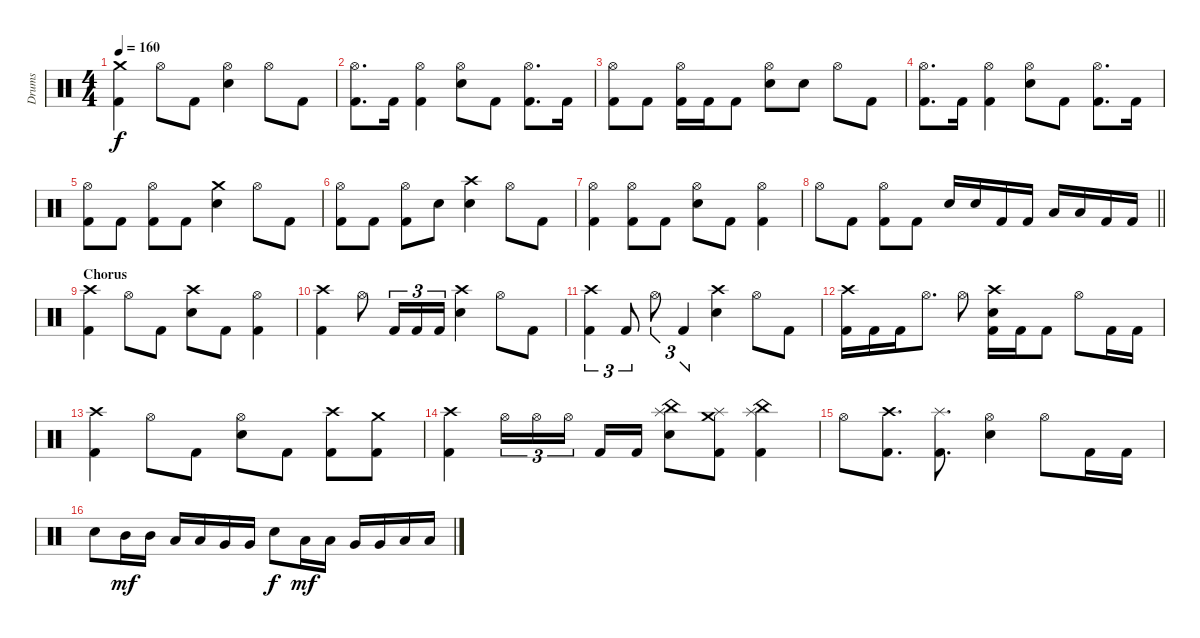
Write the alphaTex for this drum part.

\track ("Drums" "Drums") {instrument percussion}
\staff {score}
\articulation defaults
\ts (4 4)
\tempo 160
\clef neutral
\ks c
("Crash medium (hit)" "Kick (hit) 2").4{dy f} "Hi-Hat (open)".8 "Kick (hit) 2".8 ("Hi-Hat (open)" "Electric Snare (hit)").4 "Hi-Hat (open)".8 "Kick (hit) 2".8 |
("Hi-Hat (open)" "Kick (hit) 2").8{d} "Kick (hit) 2".16 ("Hi-Hat (open)" "Kick (hit) 2").4 ("Hi-Hat (open)" "Electric Snare (hit)").8 "Kick (hit) 2".8 ("Hi-Hat (open)" "Kick (hit) 2").8{d} "Kick (hit) 2".16 |
("Hi-Hat (open)" "Kick (hit) 2").8 "Kick (hit) 2".8 ("Hi-Hat (open)" "Kick (hit) 2").16 "Kick (hit) 2".16 "Kick (hit) 2".8 ("Hi-Hat (open)" "Electric Snare (hit)").8 "Electric Snare (hit)".8 "Hi-Hat (open)".8 "Kick (hit) 2".8 |
("Hi-Hat (open)" "Kick (hit) 2").8{d} "Kick (hit) 2".16 ("Hi-Hat (open)" "Kick (hit) 2").4 ("Hi-Hat (open)" "Electric Snare (hit)").8 "Kick (hit) 2".8 ("Hi-Hat (open)" "Kick (hit) 2").8{d} "Kick (hit) 2".16 |
("Hi-Hat (open)" "Kick (hit) 2").8 "Kick (hit) 2".8 ("Hi-Hat (open)" "Kick (hit) 2").8 "Kick (hit) 2".8 ("Crash medium (hit)" "Electric Snare (hit)").4 "Hi-Hat (open)".8 "Kick (hit) 2".8 |
("Hi-Hat (open)" "Kick (hit) 2").8 "Kick (hit) 2".8 ("Hi-Hat (open)" "Kick (hit) 2").8 "Electric Snare (hit)".8 ("Crash high (hit)" "Electric Snare (hit)").4 "Hi-Hat (open)".8 "Kick (hit) 2".8 |
("Hi-Hat (open)" "Kick (hit) 2").4 ("Hi-Hat (open)" "Kick (hit) 2").8 "Kick (hit) 2".8 ("Hi-Hat (open)" "Electric Snare (hit)").8 "Kick (hit) 2".8 ("Hi-Hat (open)" "Kick (hit) 2").4 |
\barLineRight lightlight "Hi-Hat (open)".8 "Kick (hit) 2".8
("Hi-Hat (open)" "Kick (hit) 2").8 "Kick (hit) 2".8 "Electric Snare (hit)".16 "Electric Snare (hit)".16 "Kick (hit) 2".16 "Kick (hit) 2".16 "Low Tom (hit)".16 "Low Tom (hit)".16 "Kick (hit) 2".16 "Kick (hit) 2".16 |
\section ("" "Chorus")
("Crash high (hit)" "Kick (hit) 2").4 "Hi-Hat (open)".8 "Kick (hit) 2".8 ("Crash high (hit)" "Electric Snare (hit)").8 "Kick (hit) 2".8 ("Hi-Hat (open)" "Kick (hit) 2").4 |
("Crash high (hit)" "Kick (hit) 2").4 "Hi-Hat (open)".8 "Kick (hit) 2".16{tu (3 2)} "Kick (hit) 2".16{tu (3 2)} "Kick (hit) 2".16{tu (3 2)} ("Crash high (hit)" "Electric Snare (hit)").4 "Hi-Hat (open)".8 "Kick (hit) 2".8 |
("Crash high (hit)" "Kick (hit) 2").4{tu (3 2)} "Kick (hit) 2".8{tu (3 2)} "Hi-Hat (open)".8{tu (3 2)} "Kick (hit) 2".4{tu (3 2)} ("Crash high (hit)" "Electric Snare (hit)").4 "Hi-Hat (open)".8 "Kick (hit) 2".8 |
("Crash high (hit)" "Kick (hit) 2").16 "Kick (hit) 2".16 "Kick (hit) 2".16 "Hi-Hat (open)".8{d} "Hi-Hat (open)".8 ("Crash high (hit)" "Electric Snare (hit)" "Kick (hit) 2").16 "Kick (hit) 2".16 "Kick (hit) 2".8 "Hi-Hat (open)".8 "Kick (hit) 2".16 "Kick (hit) 2".16 |
("Crash high (hit)" "Kick (hit) 2").4 "Hi-Hat (open)".8 "Kick (hit) 2".8 ("Hi-Hat (open)" "Electric Snare (hit)").8 "Kick (hit) 2".8 ("Crash high (hit)" "Kick (hit) 2").8 ("Crash medium (hit)" "Kick (hit) 2").8 |
("Crash high (hit)" "Kick (hit) 2").4 "Hi-Hat (open)".16{tu (3 2)} "Hi-Hat (open)".16{tu (3 2)} "Hi-Hat (open)".16{tu (3 2)} "Kick (hit) 2".16 "Kick (hit) 2".16 ("China (hit)" "Splash (hit)" "Electric Snare (hit)").8 ("Crash medium (hit)" "Splash (hit)" "Kick (hit) 2").8 ("China (hit)" "Splash (hit)" "Kick (hit) 2").4 |
"Hi-Hat (open)".8 ("Crash high (hit)" "Kick (hit) 2").8{d} ("Splash (hit)" "Kick (hit) 2").8{d} ("Hi-Hat (open)" "Electric Snare (hit)").4 "Hi-Hat (open)".8 "Kick (hit) 2".16 "Kick (hit) 2".16 |
"Electric Snare (hit)".8 "Mid Tom (hit)".16{dy mf} "Mid Tom (hit)".16 "Low Tom (hit)".16 "Low Tom (hit)".16 "Very Low Tom (hit)".16 "Very Low Tom (hit)".16 "Electric Snare (hit)".8{dy f} "Low Tom (hit)".16{dy mf} "Low Tom (hit)".16 "Very Low Tom (hit)".16 "Very Low Tom (hit)".16 "Low Floor Tom (hit)".16 "Low Floor Tom (hit)".16
